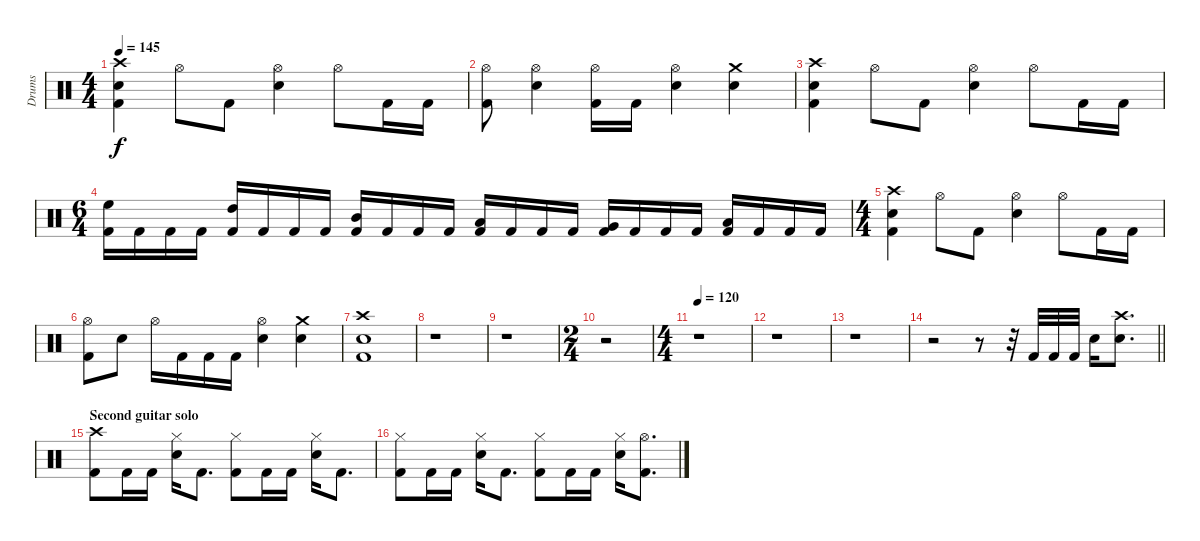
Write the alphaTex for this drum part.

\track ("Drums" "Drums") {instrument percussion}
\staff {score}
\articulation defaults
\ts (4 4)
\tempo 145
\clef neutral
\ks c
("Crash high (hit)" "Snare (hit) 2" "Kick (hit) 2").4{dy f} "Hi-Hat (open)".8 "Kick (hit) 2".8 ("Hi-Hat (open)" "Snare (hit) 2").4 "Hi-Hat (open)".8 "Kick (hit) 2".16 "Kick (hit) 2".16 |
("Hi-Hat (open)" "Kick (hit) 2").8 ("Hi-Hat (open)" "Snare (hit) 2").4 ("Hi-Hat (open)" "Kick (hit) 2").16 "Kick (hit) 2".16 ("Hi-Hat (open)" "Snare (hit) 2").4 ("Crash medium (hit)" "Snare (hit) 2").4 |
("Crash high (hit)" "Snare (hit) 2" "Kick (hit) 2").4 "Hi-Hat (open)".8 "Kick (hit) 2".8 ("Hi-Hat (open)" "Snare (hit) 2").4 "Hi-Hat (open)".8 "Kick (hit) 2".16 "Kick (hit) 2".16 |
\ts (6 4)
("High Floor Tom (hit)" "Kick (hit) 2").16 "Kick (hit) 2".16 "Kick (hit) 2".16 "Kick (hit) 2".16 ("High Tom (hit)" "Kick (hit) 2").16 "Kick (hit) 2".16 "Kick (hit) 2".16 "Kick (hit) 2".16 ("Mid Tom (hit)" "Kick (hit) 2").16 "Kick (hit) 2".16 "Kick (hit) 2".16 "Kick (hit) 2".16 ("Low Tom (hit)" "Kick (hit) 2").16 "Kick (hit) 2".16 "Kick (hit) 2".16 "Kick (hit) 2".16 ("Very Low Tom (hit)" "Kick (hit) 2").16 "Kick (hit) 2".16 "Kick (hit) 2".16 "Kick (hit) 2".16 ("Low Floor Tom (hit)" "Kick (hit) 2").16 "Kick (hit) 2".16 "Kick (hit) 2".16 "Kick (hit) 2".16 |
\ts (4 4)
("Crash high (hit)" "Snare (hit) 2" "Kick (hit) 2").4 "Hi-Hat (open)".8 "Kick (hit) 2".8 ("Hi-Hat (open)" "Snare (hit) 2").4 "Hi-Hat (open)".8 "Kick (hit) 2".16 "Kick (hit) 2".16 |
("Hi-Hat (open)" "Kick (hit) 2").8 "Snare (hit) 2".8 "Hi-Hat (open)".16 "Kick (hit) 2".16 "Kick (hit) 2".16 "Kick (hit) 2".16 ("Hi-Hat (open)" "Snare (hit) 2").4 ("Crash medium (hit)" "Snare (hit) 2").4 |
("Crash high (hit)" "Snare (hit) 2" "Kick (hit) 2").1 |
r.1 |
r.1 |
\ts (2 4)
r.2 |
\ts (4 4)
\tempo 120
r.1 |
r.1 |
r.1 |
\barLineRight lightlight
r.2 r.8 r.32 "Kick (hit) 2".32 "Kick (hit) 2".32 "Kick (hit) 2".32 "Electric Snare (hit)".16 ("Crash high (hit)" "Snare (hit) 2").8{d} |
\section ("" "Second guitar solo")
("Crash high (hit)" "Kick (hit) 2").8 "Kick (hit) 2".16 "Kick (hit) 2".16 ("Hi-Hat (closed)" "Snare (hit) 2").16 "Kick (hit) 2".8{d} ("Hi-Hat (closed)" "Kick (hit) 2").8 "Kick (hit) 2".16 "Kick (hit) 2".16 ("Hi-Hat (closed)" "Snare (hit) 2").16 "Kick (hit) 2".8{d} |
("Hi-Hat (closed)" "Kick (hit) 2").8 "Kick (hit) 2".16 "Kick (hit) 2".16 ("Hi-Hat (closed)" "Snare (hit) 2").16 "Kick (hit) 2".8{d} ("Hi-Hat (closed)" "Kick (hit) 2").8 "Kick (hit) 2".16 "Kick (hit) 2".16 ("Hi-Hat (closed)" "Snare (hit) 2").16 ("Hi-Hat (open)" "Kick (hit) 2").8{d}
